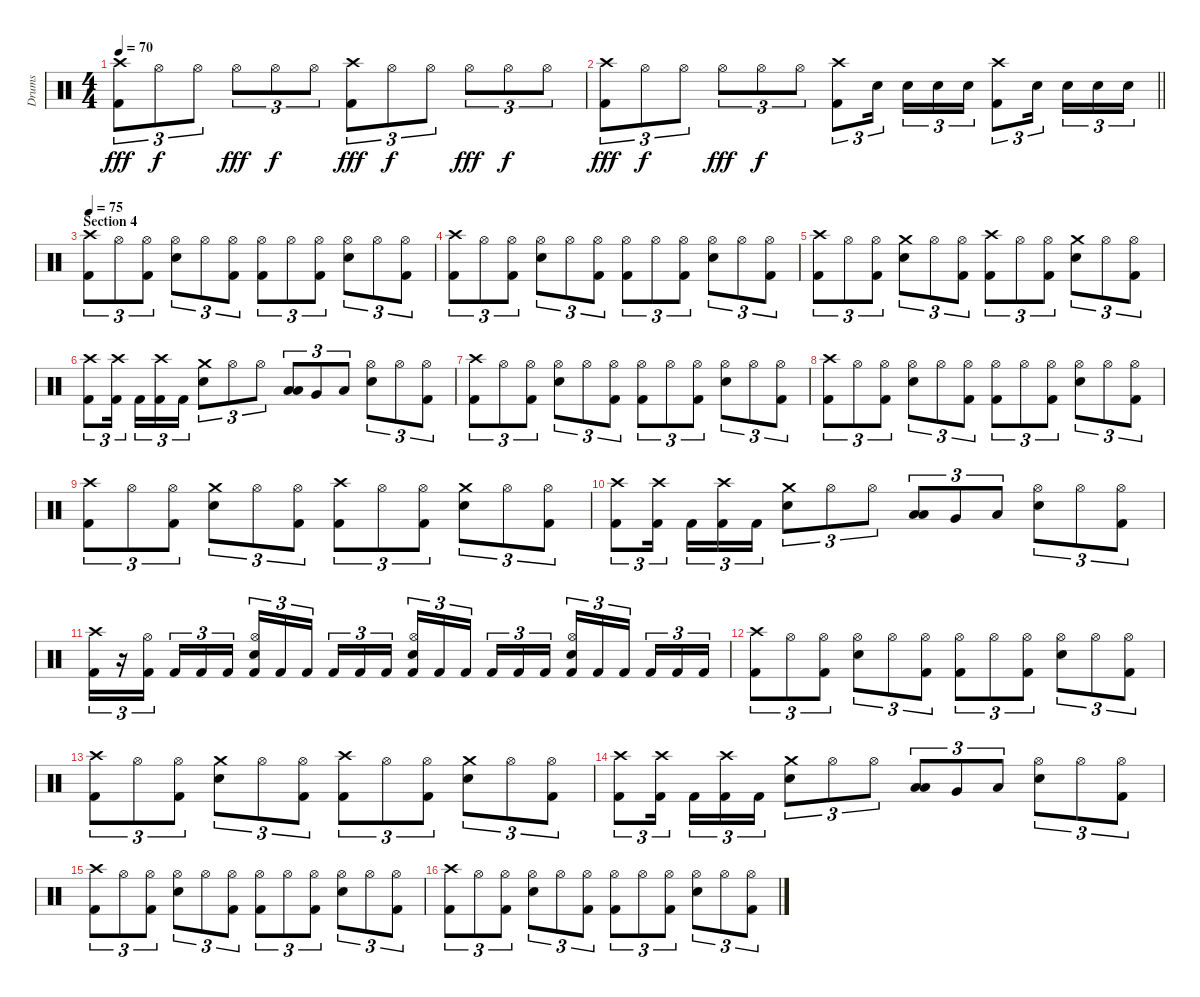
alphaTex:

\track ("Drums" "Drums") {instrument percussion}
\staff {score}
\articulation defaults
\ts (4 4)
\tempo 70
\clef neutral
\ks c
("Crash high (hit)" "Kick (hit) 2").8{tu (3 2) dy fff} "Hi-Hat (open)".8{tu (3 2) dy f} "Hi-Hat (open)".8{tu (3 2)} "Hi-Hat (open)".8{tu (3 2) dy fff} "Hi-Hat (open)".8{tu (3 2) dy f} "Hi-Hat (open)".8{tu (3 2)} ("Crash high (hit)" "Kick (hit) 2").8{tu (3 2) dy fff} "Hi-Hat (open)".8{tu (3 2) dy f} "Hi-Hat (open)".8{tu (3 2)} "Hi-Hat (open)".8{tu (3 2) dy fff} "Hi-Hat (open)".8{tu (3 2) dy f} "Hi-Hat (open)".8{tu (3 2)} |
\barLineRight lightlight
("Crash high (hit)" "Kick (hit) 2").8{tu (3 2) dy fff} "Hi-Hat (open)".8{tu (3 2) dy f} "Hi-Hat (open)".8{tu (3 2)} "Hi-Hat (open)".8{tu (3 2) dy fff} "Hi-Hat (open)".8{tu (3 2) dy f} "Hi-Hat (open)".8{tu (3 2)} ("Crash high (hit)" "Kick (hit) 2").8{tu (3 2)} "Electric Snare (hit)".16{tu (3 2)} "Electric Snare (hit)".16{tu (3 2)} "Electric Snare (hit)".16{tu (3 2)} "Electric Snare (hit)".16{tu (3 2)} ("Crash high (hit)" "Kick (hit) 2").8{tu (3 2)} "Electric Snare (hit)".16{tu (3 2)} "Electric Snare (hit)".16{tu (3 2)} "Electric Snare (hit)".16{tu (3 2)} "Electric Snare (hit)".16{tu (3 2)} |
\section ("" "Section 4")
\tempo 75
("Crash high (hit)" "Kick (hit) 2").8{tu (3 2)} "Hi-Hat (open)".8{tu (3 2)} ("Hi-Hat (open)" "Kick (hit) 2").8{tu (3 2)} ("Hi-Hat (open)" "Electric Snare (hit)").8{tu (3 2)} "Hi-Hat (open)".8{tu (3 2)} ("Hi-Hat (open)" "Kick (hit) 2").8{tu (3 2)} ("Hi-Hat (open)" "Kick (hit) 2").8{tu (3 2)} "Hi-Hat (open)".8{tu (3 2)} ("Hi-Hat (open)" "Kick (hit) 2").8{tu (3 2)} ("Hi-Hat (open)" "Electric Snare (hit)").8{tu (3 2)} "Hi-Hat (open)".8{tu (3 2)} ("Hi-Hat (open)" "Kick (hit) 2").8{tu (3 2)} |
("Crash high (hit)" "Kick (hit) 2").8{tu (3 2)} "Hi-Hat (open)".8{tu (3 2)} ("Hi-Hat (open)" "Kick (hit) 2").8{tu (3 2)} ("Hi-Hat (open)" "Electric Snare (hit)").8{tu (3 2)} "Hi-Hat (open)".8{tu (3 2)} ("Hi-Hat (open)" "Kick (hit) 2").8{tu (3 2)} ("Hi-Hat (open)" "Kick (hit) 2").8{tu (3 2)} "Hi-Hat (open)".8{tu (3 2)} ("Hi-Hat (open)" "Kick (hit) 2").8{tu (3 2)} ("Hi-Hat (open)" "Electric Snare (hit)").8{tu (3 2)} "Hi-Hat (open)".8{tu (3 2)} ("Hi-Hat (open)" "Kick (hit) 2").8{tu (3 2)} |
("Crash high (hit)" "Kick (hit) 2").8{tu (3 2)} "Hi-Hat (open)".8{tu (3 2)} ("Hi-Hat (open)" "Kick (hit) 2").8{tu (3 2)} ("Crash medium (hit)" "Electric Snare (hit)").8{tu (3 2)} "Hi-Hat (open)".8{tu (3 2)} ("Hi-Hat (open)" "Kick (hit) 2").8{tu (3 2)} ("Crash high (hit)" "Kick (hit) 2").8{tu (3 2)} "Hi-Hat (open)".8{tu (3 2)} ("Hi-Hat (open)" "Kick (hit) 2").8{tu (3 2)} ("Crash medium (hit)" "Electric Snare (hit)").8{tu (3 2)} "Hi-Hat (open)".8{tu (3 2)} ("Hi-Hat (open)" "Kick (hit) 2").8{tu (3 2)} |
("Crash high (hit)" "Kick (hit) 2").8{tu (3 2)} ("Crash high (hit)" "Kick (hit) 2").16{tu (3 2)} "Kick (hit) 2".16{tu (3 2)} ("Crash high (hit)" "Kick (hit) 2").16{tu (3 2)} "Kick (hit) 2".16{tu (3 2)} ("Crash medium (hit)" "Electric Snare (hit)").8{tu (3 2)} "Hi-Hat (open)".8{tu (3 2)} "Hi-Hat (open)".8{tu (3 2)} ("Low Tom (hit)" "Low Tom (hit)").8{tu (3 2) bu 60} "Very Low Tom (hit)".8{tu (3 2)} "Low Floor Tom (hit)".8{tu (3 2)} ("Hi-Hat (open)" "Electric Snare (hit)").8{tu (3 2)} "Hi-Hat (open)".8{tu (3 2)} ("Hi-Hat (open)" "Kick (hit) 2").8{tu (3 2)} |
("Crash high (hit)" "Kick (hit) 2").8{tu (3 2)} "Hi-Hat (open)".8{tu (3 2)} ("Hi-Hat (open)" "Kick (hit) 2").8{tu (3 2)} ("Hi-Hat (open)" "Electric Snare (hit)").8{tu (3 2)} "Hi-Hat (open)".8{tu (3 2)} ("Hi-Hat (open)" "Kick (hit) 2").8{tu (3 2)} ("Hi-Hat (open)" "Kick (hit) 2").8{tu (3 2)} "Hi-Hat (open)".8{tu (3 2)} ("Hi-Hat (open)" "Kick (hit) 2").8{tu (3 2)} ("Hi-Hat (open)" "Electric Snare (hit)").8{tu (3 2)} "Hi-Hat (open)".8{tu (3 2)} ("Hi-Hat (open)" "Kick (hit) 2").8{tu (3 2)} |
("Crash high (hit)" "Kick (hit) 2").8{tu (3 2)} "Hi-Hat (open)".8{tu (3 2)} ("Hi-Hat (open)" "Kick (hit) 2").8{tu (3 2)} ("Hi-Hat (open)" "Electric Snare (hit)").8{tu (3 2)} "Hi-Hat (open)".8{tu (3 2)} ("Hi-Hat (open)" "Kick (hit) 2").8{tu (3 2)} ("Hi-Hat (open)" "Kick (hit) 2").8{tu (3 2)} "Hi-Hat (open)".8{tu (3 2)} ("Hi-Hat (open)" "Kick (hit) 2").8{tu (3 2)} ("Hi-Hat (open)" "Electric Snare (hit)").8{tu (3 2)} "Hi-Hat (open)".8{tu (3 2)} ("Hi-Hat (open)" "Kick (hit) 2").8{tu (3 2)} |
("Crash high (hit)" "Kick (hit) 2").8{tu (3 2)} "Hi-Hat (open)".8{tu (3 2)} ("Hi-Hat (open)" "Kick (hit) 2").8{tu (3 2)} ("Crash medium (hit)" "Electric Snare (hit)").8{tu (3 2)} "Hi-Hat (open)".8{tu (3 2)} ("Hi-Hat (open)" "Kick (hit) 2").8{tu (3 2)} ("Crash high (hit)" "Kick (hit) 2").8{tu (3 2)} "Hi-Hat (open)".8{tu (3 2)} ("Hi-Hat (open)" "Kick (hit) 2").8{tu (3 2)} ("Crash medium (hit)" "Electric Snare (hit)").8{tu (3 2)} "Hi-Hat (open)".8{tu (3 2)} ("Hi-Hat (open)" "Kick (hit) 2").8{tu (3 2)} |
("Crash high (hit)" "Kick (hit) 2").8{tu (3 2)} ("Crash high (hit)" "Kick (hit) 2").16{tu (3 2)} "Kick (hit) 2".16{tu (3 2)} ("Crash high (hit)" "Kick (hit) 2").16{tu (3 2)} "Kick (hit) 2".16{tu (3 2)} ("Crash medium (hit)" "Electric Snare (hit)").8{tu (3 2)} "Hi-Hat (open)".8{tu (3 2)} "Hi-Hat (open)".8{tu (3 2)} ("Low Tom (hit)" "Low Tom (hit)").8{tu (3 2) bu 60} "Very Low Tom (hit)".8{tu (3 2)} "Low Floor Tom (hit)".8{tu (3 2)} ("Hi-Hat (open)" "Electric Snare (hit)").8{tu (3 2)} "Hi-Hat (open)".8{tu (3 2)} ("Hi-Hat (open)" "Kick (hit) 2").8{tu (3 2)} |
("Crash high (hit)" "Kick (hit) 2").16{tu (3 2)} r.16{tu (3 2)} ("Hi-Hat (open)" "Kick (hit) 2").16{tu (3 2)} "Kick (hit) 2".16{tu (3 2)} "Kick (hit) 2".16{tu (3 2)} "Kick (hit) 2".16{tu (3 2)} ("Hi-Hat (open)" "Electric Snare (hit)" "Kick (hit) 2").16{tu (3 2)} "Kick (hit) 2".16{tu (3 2)} "Kick (hit) 2".16{tu (3 2)} "Kick (hit) 2".16{tu (3 2)} "Kick (hit) 2".16{tu (3 2)} "Kick (hit) 2".16{tu (3 2)} ("Hi-Hat (open)" "Electric Snare (hit)" "Kick (hit) 2").16{tu (3 2)} "Kick (hit) 2".16{tu (3 2)} "Kick (hit) 2".16{tu (3 2)} "Kick (hit) 2".16{tu (3 2)} "Kick (hit) 2".16{tu (3 2)} "Kick (hit) 2".16{tu (3 2)} ("Hi-Hat (open)" "Electric Snare (hit)" "Kick (hit) 2").16{tu (3 2)} "Kick (hit) 2".16{tu (3 2)} "Kick (hit) 2".16{tu (3 2)} "Kick (hit) 2".16{tu (3 2)} "Kick (hit) 2".16{tu (3 2)} "Kick (hit) 2".16{tu (3 2)} |
("Crash high (hit)" "Kick (hit) 2").8{tu (3 2)} "Hi-Hat (open)".8{tu (3 2)} ("Hi-Hat (open)" "Kick (hit) 2").8{tu (3 2)} ("Hi-Hat (open)" "Electric Snare (hit)").8{tu (3 2)} "Hi-Hat (open)".8{tu (3 2)} ("Hi-Hat (open)" "Kick (hit) 2").8{tu (3 2)} ("Hi-Hat (open)" "Kick (hit) 2").8{tu (3 2)} "Hi-Hat (open)".8{tu (3 2)} ("Hi-Hat (open)" "Kick (hit) 2").8{tu (3 2)} ("Hi-Hat (open)" "Electric Snare (hit)").8{tu (3 2)} "Hi-Hat (open)".8{tu (3 2)} ("Hi-Hat (open)" "Kick (hit) 2").8{tu (3 2)} |
("Crash high (hit)" "Kick (hit) 2").8{tu (3 2)} "Hi-Hat (open)".8{tu (3 2)} ("Hi-Hat (open)" "Kick (hit) 2").8{tu (3 2)} ("Crash medium (hit)" "Electric Snare (hit)").8{tu (3 2)} "Hi-Hat (open)".8{tu (3 2)} ("Hi-Hat (open)" "Kick (hit) 2").8{tu (3 2)} ("Crash high (hit)" "Kick (hit) 2").8{tu (3 2)} "Hi-Hat (open)".8{tu (3 2)} ("Hi-Hat (open)" "Kick (hit) 2").8{tu (3 2)} ("Crash medium (hit)" "Electric Snare (hit)").8{tu (3 2)} "Hi-Hat (open)".8{tu (3 2)} ("Hi-Hat (open)" "Kick (hit) 2").8{tu (3 2)} |
("Crash high (hit)" "Kick (hit) 2").8{tu (3 2)} ("Crash high (hit)" "Kick (hit) 2").16{tu (3 2)} "Kick (hit) 2".16{tu (3 2)} ("Crash high (hit)" "Kick (hit) 2").16{tu (3 2)} "Kick (hit) 2".16{tu (3 2)} ("Crash medium (hit)" "Electric Snare (hit)").8{tu (3 2)} "Hi-Hat (open)".8{tu (3 2)} "Hi-Hat (open)".8{tu (3 2)} ("Low Tom (hit)" "Low Tom (hit)").8{tu (3 2) bu 60} "Very Low Tom (hit)".8{tu (3 2)} "Low Floor Tom (hit)".8{tu (3 2)} ("Hi-Hat (open)" "Electric Snare (hit)").8{tu (3 2)} "Hi-Hat (open)".8{tu (3 2)} ("Hi-Hat (open)" "Kick (hit) 2").8{tu (3 2)} |
("Crash high (hit)" "Kick (hit) 2").8{tu (3 2)} "Hi-Hat (open)".8{tu (3 2)} ("Hi-Hat (open)" "Kick (hit) 2").8{tu (3 2)} ("Hi-Hat (open)" "Electric Snare (hit)").8{tu (3 2)} "Hi-Hat (open)".8{tu (3 2)} ("Hi-Hat (open)" "Kick (hit) 2").8{tu (3 2)} ("Hi-Hat (open)" "Kick (hit) 2").8{tu (3 2)} "Hi-Hat (open)".8{tu (3 2)} ("Hi-Hat (open)" "Kick (hit) 2").8{tu (3 2)} ("Hi-Hat (open)" "Electric Snare (hit)").8{tu (3 2)} "Hi-Hat (open)".8{tu (3 2)} ("Hi-Hat (open)" "Kick (hit) 2").8{tu (3 2)} |
("Crash high (hit)" "Kick (hit) 2").8{tu (3 2)} "Hi-Hat (open)".8{tu (3 2)} ("Hi-Hat (open)" "Kick (hit) 2").8{tu (3 2)} ("Hi-Hat (open)" "Electric Snare (hit)").8{tu (3 2)} "Hi-Hat (open)".8{tu (3 2)} ("Hi-Hat (open)" "Kick (hit) 2").8{tu (3 2)} ("Hi-Hat (open)" "Kick (hit) 2").8{tu (3 2)} "Hi-Hat (open)".8{tu (3 2)} ("Hi-Hat (open)" "Kick (hit) 2").8{tu (3 2)} ("Hi-Hat (open)" "Electric Snare (hit)").8{tu (3 2)} "Hi-Hat (open)".8{tu (3 2)} ("Hi-Hat (open)" "Kick (hit) 2").8{tu (3 2)}
